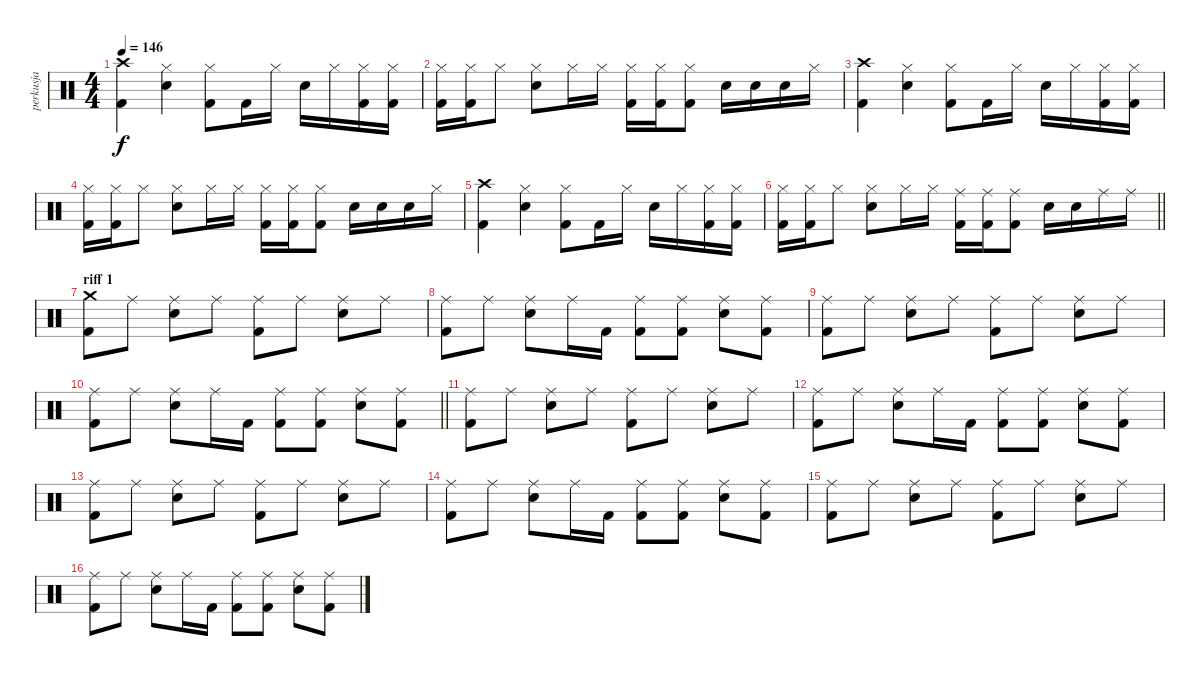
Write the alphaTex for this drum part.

\track ("perkusja" "perkusja") {instrument percussion}
\staff {score}
\articulation defaults
\ts (4 4)
\tempo 146
\clef neutral
\ks c
("Crash high (hit)" "Kick (hit) 2").4{dy f} ("Hi-Hat (closed)" "Electric Snare (hit)").4 ("Hi-Hat (closed)" "Kick (hit) 2").8 "Kick (hit) 2".16 "Hi-Hat (closed)".16 "Electric Snare (hit)".16 "Hi-Hat (closed)".16 ("Hi-Hat (closed)" "Kick (hit) 2").16 ("Hi-Hat (closed)" "Kick (hit) 2").16 |
("Hi-Hat (closed)" "Kick (hit) 2").16 ("Hi-Hat (closed)" "Kick (hit) 2").16 "Hi-Hat (closed)".8 ("Hi-Hat (closed)" "Electric Snare (hit)").8 "Hi-Hat (closed)".16 "Hi-Hat (closed)".16 ("Hi-Hat (closed)" "Kick (hit) 2").16 ("Hi-Hat (closed)" "Kick (hit) 2").16 ("Hi-Hat (closed)" "Kick (hit) 2").8 "Electric Snare (hit)".16 "Electric Snare (hit)".16 "Electric Snare (hit)".16 "Hi-Hat (closed)".16 |
("Crash high (hit)" "Kick (hit) 2").4 ("Hi-Hat (closed)" "Electric Snare (hit)").4 ("Hi-Hat (closed)" "Kick (hit) 2").8 "Kick (hit) 2".16 "Hi-Hat (closed)".16 "Electric Snare (hit)".16 "Hi-Hat (closed)".16 ("Hi-Hat (closed)" "Kick (hit) 2").16 ("Hi-Hat (closed)" "Kick (hit) 2").16 |
("Hi-Hat (closed)" "Kick (hit) 2").16 ("Hi-Hat (closed)" "Kick (hit) 2").16 "Hi-Hat (closed)".8 ("Hi-Hat (closed)" "Electric Snare (hit)").8 "Hi-Hat (closed)".16 "Hi-Hat (closed)".16 ("Hi-Hat (closed)" "Kick (hit) 2").16 ("Hi-Hat (closed)" "Kick (hit) 2").16 ("Hi-Hat (closed)" "Kick (hit) 2").8 "Electric Snare (hit)".16 "Electric Snare (hit)".16 "Electric Snare (hit)".16 "Hi-Hat (closed)".16 |
("Crash high (hit)" "Kick (hit) 2").4 ("Hi-Hat (closed)" "Electric Snare (hit)").4 ("Hi-Hat (closed)" "Kick (hit) 2").8 "Kick (hit) 2".16 "Hi-Hat (closed)".16 "Electric Snare (hit)".16 "Hi-Hat (closed)".16 ("Hi-Hat (closed)" "Kick (hit) 2").16 ("Hi-Hat (closed)" "Kick (hit) 2").16 |
\barLineRight lightlight
("Hi-Hat (closed)" "Kick (hit) 2").16 ("Hi-Hat (closed)" "Kick (hit) 2").16 "Hi-Hat (closed)".8 ("Hi-Hat (closed)" "Electric Snare (hit)").8 "Hi-Hat (closed)".16 "Hi-Hat (closed)".16 ("Ride (middle)" "Kick (hit) 2").16 ("Ride (middle)" "Kick (hit) 2").16 ("Ride (middle)" "Kick (hit) 2").8 "Electric Snare (hit)".16 "Electric Snare (hit)".16 "Ride (middle)".16 "Ride (middle)".16 |
\section ("" "riff 1")
("Crash medium (hit)" "Kick (hit) 2").8 "Ride (middle)".8 ("Ride (middle)" "Electric Snare (hit)").8 "Ride (middle)".8 ("Ride (middle)" "Kick (hit) 2").8 "Ride (middle)".8 ("Ride (middle)" "Electric Snare (hit)").8 "Ride (middle)".8 |
("Ride (middle)" "Kick (hit) 2").8 "Ride (middle)".8 ("Ride (middle)" "Electric Snare (hit)").8 "Ride (middle)".16 "Kick (hit) 2".16 ("Ride (middle)" "Kick (hit) 2").8 ("Ride (middle)" "Kick (hit) 2").8 ("Ride (middle)" "Electric Snare (hit)").8 ("Ride (middle)" "Kick (hit) 2").8 |
("Ride (middle)" "Kick (hit) 2").8 "Ride (middle)".8 ("Ride (middle)" "Electric Snare (hit)").8 "Ride (middle)".8 ("Ride (middle)" "Kick (hit) 2").8 "Ride (middle)".8 ("Ride (middle)" "Electric Snare (hit)").8 "Ride (middle)".8 |
\barLineRight lightlight
("Ride (middle)" "Kick (hit) 2").8 "Ride (middle)".8 ("Ride (middle)" "Electric Snare (hit)").8 "Ride (middle)".16 "Kick (hit) 2".16 ("Ride (middle)" "Kick (hit) 2").8 ("Ride (middle)" "Kick (hit) 2").8 ("Ride (middle)" "Electric Snare (hit)").8 ("Ride (middle)" "Kick (hit) 2").8 |
("Ride (middle)" "Kick (hit) 2").8 "Ride (middle)".8 ("Ride (middle)" "Electric Snare (hit)").8 "Ride (middle)".8 ("Ride (middle)" "Kick (hit) 2").8 "Ride (middle)".8 ("Ride (middle)" "Electric Snare (hit)").8 "Ride (middle)".8 |
("Ride (middle)" "Kick (hit) 2").8 "Ride (middle)".8 ("Ride (middle)" "Electric Snare (hit)").8 "Ride (middle)".16 "Kick (hit) 2".16 ("Ride (middle)" "Kick (hit) 2").8 ("Ride (middle)" "Kick (hit) 2").8 ("Ride (middle)" "Electric Snare (hit)").8 ("Ride (middle)" "Kick (hit) 2").8 |
("Ride (middle)" "Kick (hit) 2").8 "Ride (middle)".8 ("Ride (middle)" "Electric Snare (hit)").8 "Ride (middle)".8 ("Ride (middle)" "Kick (hit) 2").8 "Ride (middle)".8 ("Ride (middle)" "Electric Snare (hit)").8 "Ride (middle)".8 |
("Ride (middle)" "Kick (hit) 2").8 "Ride (middle)".8 ("Ride (middle)" "Electric Snare (hit)").8 "Ride (middle)".16 "Kick (hit) 2".16 ("Ride (middle)" "Kick (hit) 2").8 ("Ride (middle)" "Kick (hit) 2").8 ("Ride (middle)" "Electric Snare (hit)").8 ("Ride (middle)" "Kick (hit) 2").8 |
("Ride (middle)" "Kick (hit) 2").8 "Ride (middle)".8 ("Ride (middle)" "Electric Snare (hit)").8 "Ride (middle)".8 ("Ride (middle)" "Kick (hit) 2").8 "Ride (middle)".8 ("Ride (middle)" "Electric Snare (hit)").8 "Ride (middle)".8 |
("Ride (middle)" "Kick (hit) 2").8 "Ride (middle)".8 ("Ride (middle)" "Electric Snare (hit)").8 "Ride (middle)".16 "Kick (hit) 2".16 ("Ride (middle)" "Kick (hit) 2").8 ("Ride (middle)" "Kick (hit) 2").8 ("Ride (middle)" "Electric Snare (hit)").8 ("Ride (middle)" "Kick (hit) 2").8
